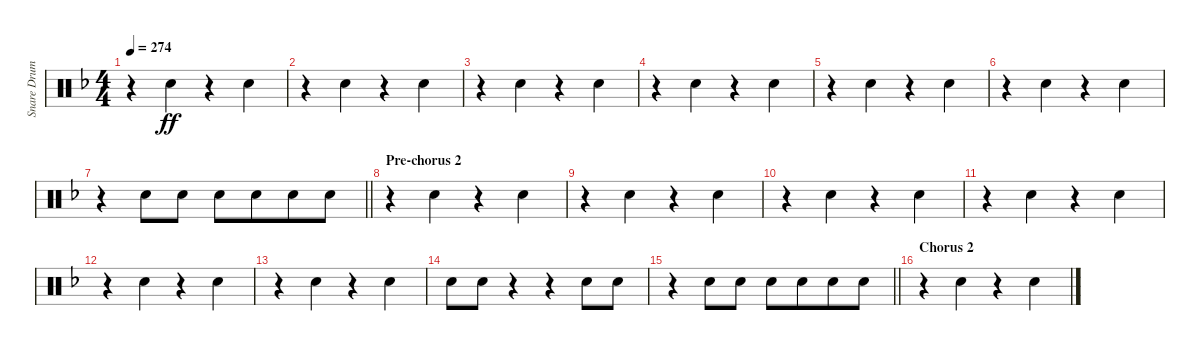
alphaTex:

\track ("Snare Drum" "Snare Drum") {instrument percussion}
\staff {score}
\articulation defaults
\ts (4 4)
\tempo 274
\clef neutral
\ks dminor
r.4{dy ff} "Electric Snare (hit)".4 r.4 "Electric Snare (hit)".4 |
r.4 "Electric Snare (hit)".4 r.4 "Electric Snare (hit)".4 |
r.4 "Electric Snare (hit)".4 r.4 "Electric Snare (hit)".4 |
r.4 "Electric Snare (hit)".4 r.4 "Electric Snare (hit)".4 |
r.4 "Electric Snare (hit)".4 r.4 "Electric Snare (hit)".4 |
r.4 "Electric Snare (hit)".4 r.4 "Electric Snare (hit)".4 |
\barLineRight lightlight
r.4 "Electric Snare (hit)".8 "Electric Snare (hit)".8 "Electric Snare (hit)".8 "Electric Snare (hit)".8{beam merge} "Electric Snare (hit)".8 "Electric Snare (hit)".8 |
\section ("" "Pre-chorus 2")
r.4 "Electric Snare (hit)".4 r.4 "Electric Snare (hit)".4 |
r.4 "Electric Snare (hit)".4 r.4 "Electric Snare (hit)".4 |
r.4 "Electric Snare (hit)".4 r.4 "Electric Snare (hit)".4 |
r.4 "Electric Snare (hit)".4 r.4 "Electric Snare (hit)".4 |
r.4 "Electric Snare (hit)".4 r.4 "Electric Snare (hit)".4 |
r.4 "Electric Snare (hit)".4 r.4 "Electric Snare (hit)".4 |
"Electric Snare (hit)".8 "Electric Snare (hit)".8 r.4 r.4 "Electric Snare (hit)".8 "Electric Snare (hit)".8 |
\barLineRight lightlight
r.4 "Electric Snare (hit)".8 "Electric Snare (hit)".8 "Electric Snare (hit)".8 "Electric Snare (hit)".8{beam merge} "Electric Snare (hit)".8 "Electric Snare (hit)".8 |
\section ("" "Chorus 2")
r.4 "Electric Snare (hit)".4 r.4 "Electric Snare (hit)".4
